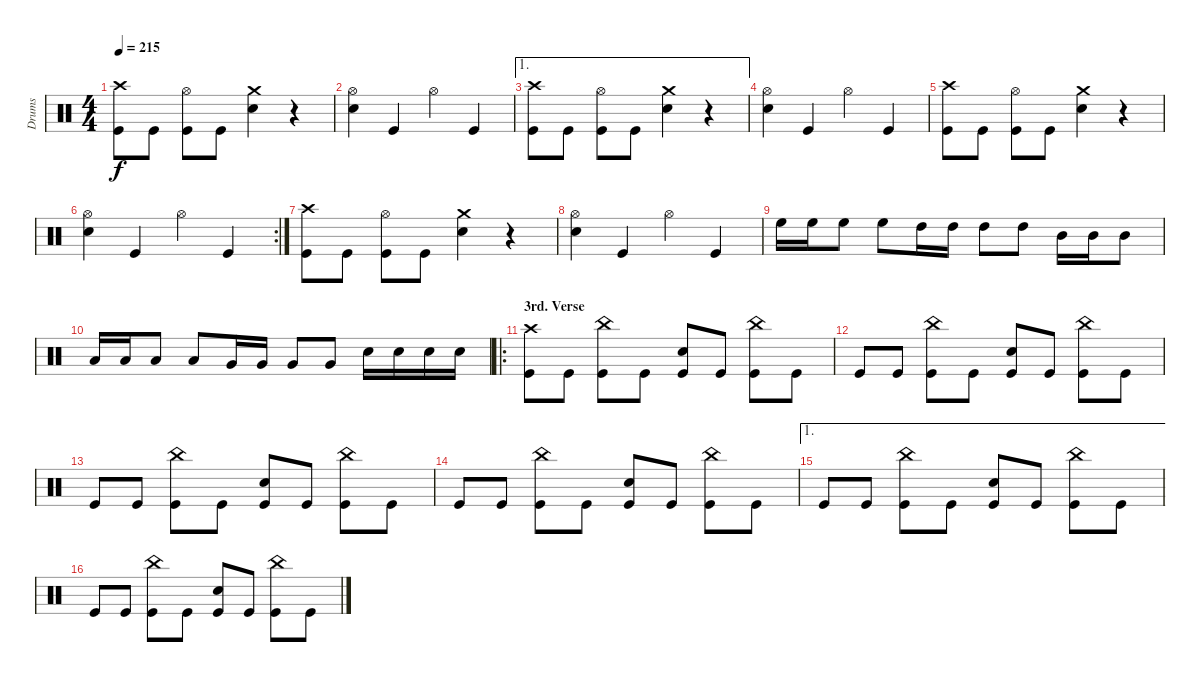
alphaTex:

\track ("Drums" "Drums") {instrument percussion}
\staff {score}
\articulation defaults
\ts (4 4)
\tempo 215
\clef neutral
\ks c
("Crash high (hit)" "Kick (hit)").8{dy f} "Kick (hit)".8 ("Hi-Hat (open)" "Kick (hit)").8 "Kick (hit)".8 ("Crash medium (hit)" "Electric Snare (hit)").4 r.4 |
("Hi-Hat (open)" "Electric Snare (hit)").4 "Kick (hit)".4 "Hi-Hat (open)".4 "Kick (hit)".4 |
\ae 1
("Crash high (hit)" "Kick (hit)").8 "Kick (hit)".8 ("Hi-Hat (open)" "Kick (hit)").8 "Kick (hit)".8 ("Crash medium (hit)" "Electric Snare (hit)").4 r.4 |
("Hi-Hat (open)" "Electric Snare (hit)").4 "Kick (hit)".4 "Hi-Hat (open)".4 "Kick (hit)".4 |
("Crash high (hit)" "Kick (hit)").8 "Kick (hit)".8 ("Hi-Hat (open)" "Kick (hit)").8 "Kick (hit)".8 ("Crash medium (hit)" "Electric Snare (hit)").4 r.4 |
\rc 2
("Hi-Hat (open)" "Electric Snare (hit)").4 "Kick (hit)".4 "Hi-Hat (open)".4 "Kick (hit)".4 |
("Crash high (hit)" "Kick (hit)").8 "Kick (hit)".8 ("Hi-Hat (open)" "Kick (hit)").8 "Kick (hit)".8 ("Crash medium (hit)" "Electric Snare (hit)").4 r.4 |
("Hi-Hat (open)" "Electric Snare (hit)").4 "Kick (hit)".4 "Hi-Hat (open)".4 "Kick (hit)".4 |
"High Floor Tom (hit)".16 "High Floor Tom (hit)".16 "High Floor Tom (hit)".8 "High Floor Tom (hit)".8 "High Tom (hit)".16 "High Tom (hit)".16 "High Tom (hit)".8 "High Tom (hit)".8 "Mid Tom (hit)".16 "Mid Tom (hit)".16 "Mid Tom (hit)".8 |
"Low Tom (hit)".16 "Low Tom (hit)".16 "Low Tom (hit)".8 "Low Tom (hit)".8 "Very Low Tom (hit)".16 "Very Low Tom (hit)".16 "Very Low Tom (hit)".8 "Very Low Tom (hit)".8 "Electric Snare (hit)".16 "Electric Snare (hit)".16 "Electric Snare (hit)".16 "Electric Snare (hit)".16 |
\ro
\section ("" "3rd. Verse")
("Crash high (hit)" "Kick (hit)").8 "Kick (hit)".8 ("China (hit)" "Kick (hit)").8 "Kick (hit)".8 ("Electric Snare (hit)" "Kick (hit)").8 "Kick (hit)".8 ("China (hit)" "Kick (hit)").8 "Kick (hit)".8 |
"Kick (hit)".8 "Kick (hit)".8 ("China (hit)" "Kick (hit)").8 "Kick (hit)".8 ("Electric Snare (hit)" "Kick (hit)").8 "Kick (hit)".8 ("China (hit)" "Kick (hit)").8 "Kick (hit)".8 |
"Kick (hit)".8 "Kick (hit)".8 ("China (hit)" "Kick (hit)").8 "Kick (hit)".8 ("Electric Snare (hit)" "Kick (hit)").8 "Kick (hit)".8 ("China (hit)" "Kick (hit)").8 "Kick (hit)".8 |
"Kick (hit)".8 "Kick (hit)".8 ("China (hit)" "Kick (hit)").8 "Kick (hit)".8 ("Electric Snare (hit)" "Kick (hit)").8 "Kick (hit)".8 ("China (hit)" "Kick (hit)").8 "Kick (hit)".8 |
\ae 1 "Kick (hit)".8 "Kick (hit)".8
("China (hit)" "Kick (hit)").8 "Kick (hit)".8 ("Electric Snare (hit)" "Kick (hit)").8 "Kick (hit)".8 ("China (hit)" "Kick (hit)").8 "Kick (hit)".8 |
"Kick (hit)".8 "Kick (hit)".8 ("China (hit)" "Kick (hit)").8 "Kick (hit)".8 ("Electric Snare (hit)" "Kick (hit)").8 "Kick (hit)".8 ("China (hit)" "Kick (hit)").8 "Kick (hit)".8
